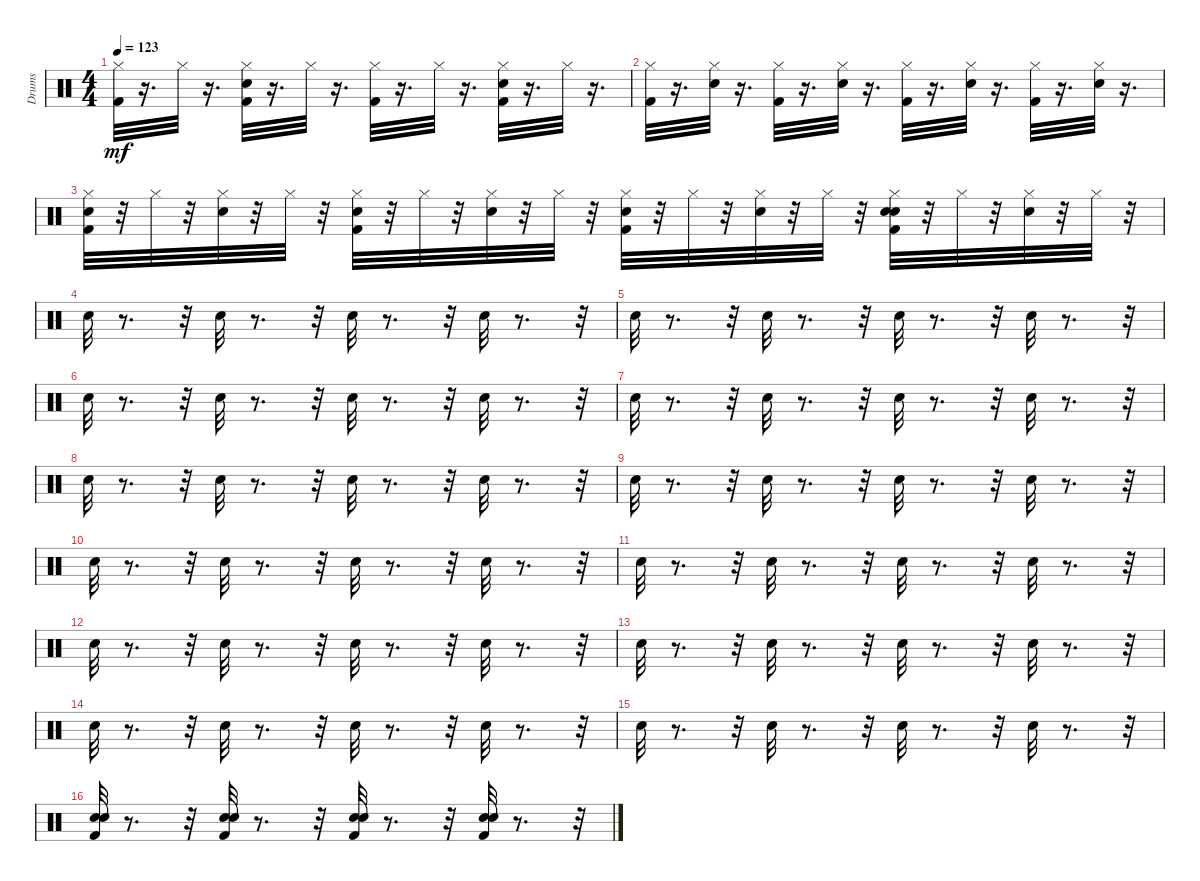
\track ("Drums" "Drums") {instrument percussion}
\staff {score}
\articulation defaults
\ts (4 4)
\tempo 123
\clef neutral
\ks c
("Kick (hit) 2" "Hi-Hat (closed)").32{dy mf} r.16{d} "Hi-Hat (closed)".32 r.16{d} ("Kick (hit) 2" "Snare (hit) 2" "Hi-Hat (closed)").32 r.16{d} "Hi-Hat (closed)".32 r.16{d} ("Kick (hit) 2" "Hi-Hat (closed)").32 r.16{d} "Hi-Hat (closed)".32 r.16{d} ("Kick (hit) 2" "Snare (hit) 2" "Hi-Hat (closed)").32 r.16{d} "Hi-Hat (closed)".32 r.16{d} |
("Kick (hit) 2" "Hi-Hat (closed)").32 r.16{d} ("Snare (hit) 2" "Hi-Hat (closed)").32 r.16{d} ("Kick (hit) 2" "Hi-Hat (closed)").32 r.16{d} ("Snare (hit) 2" "Hi-Hat (closed)").32 r.16{d} ("Kick (hit) 2" "Hi-Hat (closed)").32 r.16{d} ("Snare (hit) 2" "Hi-Hat (closed)").32 r.16{d} ("Kick (hit) 2" "Hi-Hat (closed)").32 r.16{d} ("Snare (hit) 2" "Hi-Hat (closed)").32 r.16{d} |
("Kick (hit) 2" "Snare (hit) 2" "Hi-Hat (closed)").32 r.32 "Hi-Hat (closed)".32 r.32 ("Snare (hit) 2" "Hi-Hat (closed)").32 r.32 "Hi-Hat (closed)".32 r.32 ("Kick (hit) 2" "Snare (hit) 2" "Hi-Hat (closed)").32 r.32 "Hi-Hat (closed)".32 r.32 ("Snare (hit) 2" "Hi-Hat (closed)").32 r.32 "Hi-Hat (closed)".32 r.32 ("Kick (hit) 2" "Snare (hit) 2" "Hi-Hat (closed)").32 r.32 "Hi-Hat (closed)".32 r.32 ("Snare (hit) 2" "Hi-Hat (closed)").32 r.32 "Hi-Hat (closed)".32 r.32 ("Kick (hit) 2" "Snare (hit) 2" "Hand Clap (hit)" "Hi-Hat (closed)").32 r.32 "Hi-Hat (closed)".32 r.32 ("Snare (hit) 2" "Hi-Hat (closed)").32 r.32 "Hi-Hat (closed)".32 r.32 |
"Hand Clap (hit)".32 r.8{d} r.32 "Hand Clap (hit)".32 r.8{d} r.32 "Hand Clap (hit)".32 r.8{d} r.32 "Hand Clap (hit)".32 r.8{d} r.32 |
"Hand Clap (hit)".32 r.8{d} r.32 "Hand Clap (hit)".32 r.8{d} r.32 "Hand Clap (hit)".32 r.8{d} r.32 "Hand Clap (hit)".32 r.8{d} r.32 |
"Hand Clap (hit)".32 r.8{d} r.32 "Hand Clap (hit)".32 r.8{d} r.32 "Hand Clap (hit)".32 r.8{d} r.32 "Hand Clap (hit)".32 r.8{d} r.32 |
"Hand Clap (hit)".32 r.8{d} r.32 "Hand Clap (hit)".32 r.8{d} r.32 "Hand Clap (hit)".32 r.8{d} r.32 "Hand Clap (hit)".32 r.8{d} r.32 |
"Hand Clap (hit)".32 r.8{d} r.32 "Hand Clap (hit)".32 r.8{d} r.32 "Hand Clap (hit)".32 r.8{d} r.32 "Hand Clap (hit)".32 r.8{d} r.32 |
"Hand Clap (hit)".32 r.8{d} r.32 "Hand Clap (hit)".32 r.8{d} r.32 "Hand Clap (hit)".32 r.8{d} r.32 "Hand Clap (hit)".32 r.8{d} r.32 |
"Hand Clap (hit)".32 r.8{d} r.32 "Hand Clap (hit)".32 r.8{d} r.32 "Hand Clap (hit)".32 r.8{d} r.32 "Hand Clap (hit)".32 r.8{d} r.32 |
"Hand Clap (hit)".32 r.8{d} r.32 "Hand Clap (hit)".32 r.8{d} r.32 "Hand Clap (hit)".32 r.8{d} r.32 "Hand Clap (hit)".32 r.8{d} r.32 |
"Hand Clap (hit)".32 r.8{d} r.32 "Hand Clap (hit)".32 r.8{d} r.32 "Hand Clap (hit)".32 r.8{d} r.32 "Hand Clap (hit)".32 r.8{d} r.32 |
"Hand Clap (hit)".32 r.8{d} r.32 "Hand Clap (hit)".32 r.8{d} r.32 "Hand Clap (hit)".32 r.8{d} r.32 "Hand Clap (hit)".32 r.8{d} r.32 |
"Hand Clap (hit)".32 r.8{d} r.32 "Hand Clap (hit)".32 r.8{d} r.32 "Hand Clap (hit)".32 r.8{d} r.32 "Hand Clap (hit)".32 r.8{d} r.32 |
"Hand Clap (hit)".32 r.8{d} r.32 "Hand Clap (hit)".32 r.8{d} r.32 "Hand Clap (hit)".32 r.8{d} r.32 "Hand Clap (hit)".32 r.8{d} r.32 |
("Kick (hit) 2" "Hand Clap (hit)" "Electric Snare (hit)").32 r.8{d} r.32 ("Kick (hit) 2" "Hand Clap (hit)" "Electric Snare (hit)").32 r.8{d} r.32 ("Kick (hit) 2" "Hand Clap (hit)" "Electric Snare (hit)").32 r.8{d} r.32 ("Kick (hit) 2" "Hand Clap (hit)" "Electric Snare (hit)").32 r.8{d} r.32
